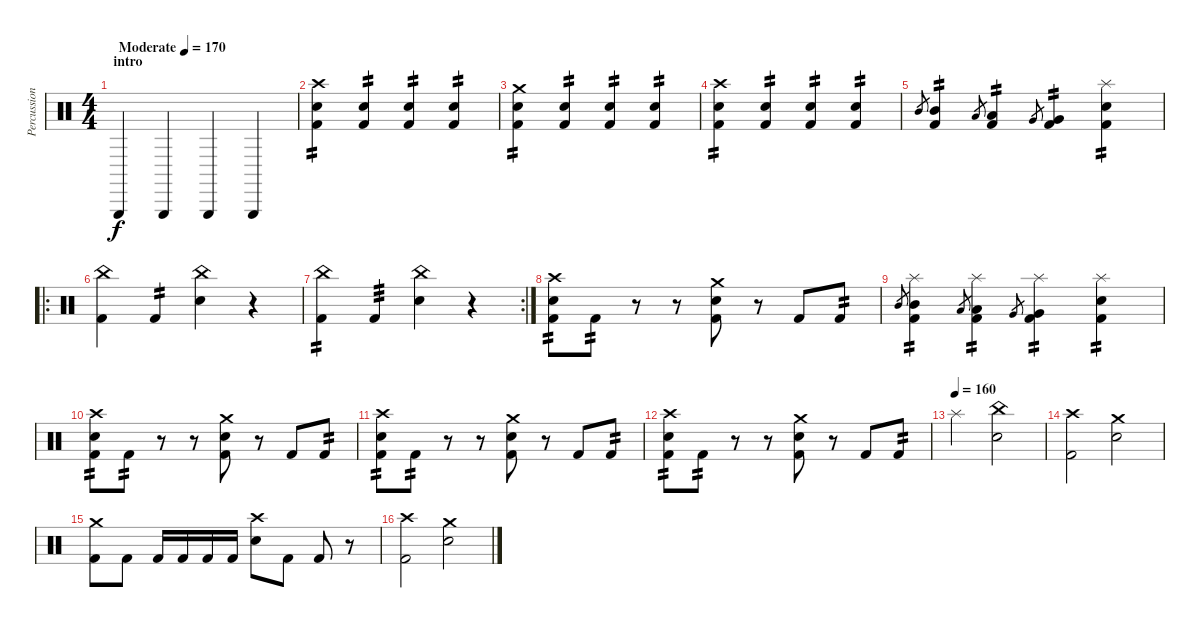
\track ("Percussion" "Percussion") {instrument percussion}
\staff {score}
\articulation defaults
\ts (4 4)
\section ("" "intro")
\tempo (170 "Moderate")
\clef neutral
\ks c "Triangle (hit)".4{dy f} "Triangle (hit)".4 "Triangle (hit)".4 "Triangle (hit)".4
|
("Crash high (hit)" "Snare (hit) 2" "Kick (hit) 2").4{tp 2} ("Snare (hit) 2" "Kick (hit) 2").4{tp 2} ("Snare (hit) 2" "Kick (hit) 2").4{tp 2} ("Snare (hit) 2" "Kick (hit) 2").4{tp 2} |
("Crash medium (hit)" "Snare (hit) 2" "Kick (hit) 2").4{tp 2} ("Snare (hit) 2" "Kick (hit) 2").4{tp 2} ("Snare (hit) 2" "Kick (hit) 2").4{tp 2} ("Snare (hit) 2" "Kick (hit) 2").4{tp 2} |
("Crash high (hit)" "Snare (hit) 2" "Kick (hit) 2").4{tp 2} ("Snare (hit) 2" "Kick (hit) 2").4{tp 2} ("Snare (hit) 2" "Kick (hit) 2").4{tp 2} ("Snare (hit) 2" "Kick (hit) 2").4{tp 2} |
"Mid Tom (hit)".8{gr} ("Kick (hit) 2" "Mid Tom (hit)").4{tp 2} "Low Tom (hit)".8{gr} ("Kick (hit) 2" "Low Tom (hit)").4{tp 2} "Very Low Tom (hit)".8{gr} ("Kick (hit) 2" "Very Low Tom (hit)").4{tp 2} ("Splash (hit)" "Snare (hit) 2" "Kick (hit) 2").4{tp 2} |
\ro
("China (hit)" "Kick (hit) 2").4 "Kick (hit) 2".4{tp 2} ("China (hit)" "Snare (hit) 2").4 r.4 |
\rc 2
("China (hit)" "Kick (hit) 2").4{tp 2} "Kick (hit) 2".4{tp 3} ("China (hit)" "Snare (hit) 2").4 r.4 |
("Crash high (hit)" "Snare (hit) 2" "Kick (hit) 2").8{tp 2} "Kick (hit) 2".8{tp 2} r.8 r.8 ("Crash medium (hit)" "Snare (hit) 2" "Kick (hit) 2").8 r.8 "Kick (hit) 2".8 "Kick (hit) 2".8{tp 2} |
"Mid Tom (hit)".8{gr} ("Splash (hit)" "Kick (hit) 2" "Mid Tom (hit)").4{tp 2} "Low Tom (hit)".8{gr} ("Splash (hit)" "Kick (hit) 2" "Low Tom (hit)").4{tp 2} "Very Low Tom (hit)".8{gr} ("Splash (hit)" "Kick (hit) 2" "Very Low Tom (hit)").4{tp 2} ("Splash (hit)" "Snare (hit) 2" "Kick (hit) 2").4{tp 2} |
("Crash high (hit)" "Snare (hit) 2" "Kick (hit) 2").8{tp 2} "Kick (hit) 2".8{tp 2} r.8 r.8 ("Crash medium (hit)" "Snare (hit) 2" "Kick (hit) 2").8 r.8 "Kick (hit) 2".8 "Kick (hit) 2".8{tp 2} |
("Crash high (hit)" "Snare (hit) 2" "Kick (hit) 2").8{tp 2} "Kick (hit) 2".8{tp 2} r.8 r.8 ("Crash medium (hit)" "Snare (hit) 2" "Kick (hit) 2").8 r.8 "Kick (hit) 2".8 "Kick (hit) 2".8{tp 2} |
("Crash high (hit)" "Snare (hit) 2" "Kick (hit) 2").8{tp 2} "Kick (hit) 2".8{tp 2} r.8 r.8 ("Crash medium (hit)" "Snare (hit) 2" "Kick (hit) 2").8 r.8 "Kick (hit) 2".8 "Kick (hit) 2".8{tp 2} |
\tempo (160)
"Splash (hit)".2 ("China (hit)" "Snare (hit) 2").2 |
("Crash high (hit)" "Kick (hit) 2").2 ("Crash medium (hit)" "Snare (hit) 2").2 |
("Crash medium (hit)" "Kick (hit) 2").8 "Kick (hit) 2".8 "Kick (hit) 2".16 "Kick (hit) 2".16 "Kick (hit) 2".16 "Kick (hit) 2".16 ("Crash high (hit)" "Snare (hit) 2").8 "Kick (hit) 2".8 "Kick (hit) 2".8 r.8 |
("Crash high (hit)" "Kick (hit) 2").2 ("Crash medium (hit)" "Snare (hit) 2").2
